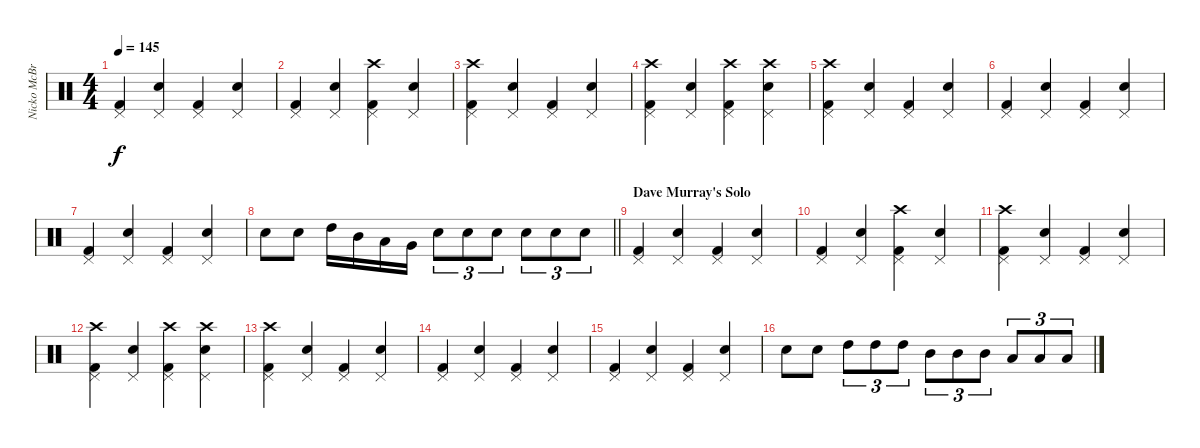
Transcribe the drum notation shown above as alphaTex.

\track ("Nicko McBrain" "Nicko McBr") {instrument percussion}
\staff {score}
\articulation defaults
\ts (4 4)
\tempo 145
\clef neutral
\ks c
("Pedal Hi-Hat (hit)" "Kick (hit) 2").4{dy f} ("Pedal Hi-Hat (hit)" "Snare (hit) 2").4 ("Pedal Hi-Hat (hit)" "Kick (hit) 2").4 ("Pedal Hi-Hat (hit)" "Snare (hit) 2").4 |
("Pedal Hi-Hat (hit)" "Kick (hit) 2").4 ("Pedal Hi-Hat (hit)" "Snare (hit) 2").4 ("Pedal Hi-Hat (hit)" "Kick (hit) 2" "Crash high (hit)").4 ("Pedal Hi-Hat (hit)" "Snare (hit) 2").4 |
("Pedal Hi-Hat (hit)" "Kick (hit) 2" "Crash high (hit)").4 ("Pedal Hi-Hat (hit)" "Snare (hit) 2").4 ("Pedal Hi-Hat (hit)" "Kick (hit) 2").4 ("Pedal Hi-Hat (hit)" "Snare (hit) 2").4 |
("Pedal Hi-Hat (hit)" "Kick (hit) 2" "Crash high (hit)").4 ("Pedal Hi-Hat (hit)" "Snare (hit) 2").4 ("Pedal Hi-Hat (hit)" "Kick (hit) 2" "Crash high (hit)").4 ("Pedal Hi-Hat (hit)" "Snare (hit) 2" "Crash high (hit)").4 |
("Pedal Hi-Hat (hit)" "Kick (hit) 2" "Crash high (hit)").4 ("Pedal Hi-Hat (hit)" "Snare (hit) 2").4 ("Pedal Hi-Hat (hit)" "Kick (hit) 2").4 ("Pedal Hi-Hat (hit)" "Snare (hit) 2").4 |
("Pedal Hi-Hat (hit)" "Kick (hit) 2").4 ("Pedal Hi-Hat (hit)" "Snare (hit) 2").4 ("Pedal Hi-Hat (hit)" "Kick (hit) 2").4 ("Pedal Hi-Hat (hit)" "Snare (hit) 2").4 |
("Pedal Hi-Hat (hit)" "Kick (hit) 2").4 ("Pedal Hi-Hat (hit)" "Snare (hit) 2").4 ("Pedal Hi-Hat (hit)" "Kick (hit) 2").4 ("Pedal Hi-Hat (hit)" "Snare (hit) 2").4 |
\barLineRight lightlight "Snare (hit) 2".8 "Snare (hit) 2".8 "High Tom (hit)".16 "Mid Tom (hit)".16 "Low Tom (hit)".16 "Very Low Tom (hit)".16 "Snare (hit) 2".8{tu (3 2)} "Snare (hit) 2".8{tu (3 2)} "Snare (hit) 2".8{tu (3 2)} "Snare (hit) 2".8{tu (3 2)} "Snare (hit) 2".8{tu (3 2)} "Snare (hit) 2".8{tu (3 2)}
|
\section ("" "Dave Murray's Solo")
("Pedal Hi-Hat (hit)" "Kick (hit) 2").4 ("Pedal Hi-Hat (hit)" "Snare (hit) 2").4 ("Pedal Hi-Hat (hit)" "Kick (hit) 2").4 ("Pedal Hi-Hat (hit)" "Snare (hit) 2").4 |
("Pedal Hi-Hat (hit)" "Kick (hit) 2").4 ("Pedal Hi-Hat (hit)" "Snare (hit) 2").4 ("Pedal Hi-Hat (hit)" "Kick (hit) 2" "Crash high (hit)").4 ("Pedal Hi-Hat (hit)" "Snare (hit) 2").4 |
("Pedal Hi-Hat (hit)" "Kick (hit) 2" "Crash high (hit)").4 ("Pedal Hi-Hat (hit)" "Snare (hit) 2").4 ("Pedal Hi-Hat (hit)" "Kick (hit) 2").4 ("Pedal Hi-Hat (hit)" "Snare (hit) 2").4 |
("Pedal Hi-Hat (hit)" "Kick (hit) 2" "Crash high (hit)").4 ("Pedal Hi-Hat (hit)" "Snare (hit) 2").4 ("Pedal Hi-Hat (hit)" "Kick (hit) 2" "Crash high (hit)").4 ("Pedal Hi-Hat (hit)" "Snare (hit) 2" "Crash high (hit)").4 |
("Pedal Hi-Hat (hit)" "Kick (hit) 2" "Crash high (hit)").4 ("Pedal Hi-Hat (hit)" "Snare (hit) 2").4 ("Pedal Hi-Hat (hit)" "Kick (hit) 2").4 ("Pedal Hi-Hat (hit)" "Snare (hit) 2").4 |
("Pedal Hi-Hat (hit)" "Kick (hit) 2").4 ("Pedal Hi-Hat (hit)" "Snare (hit) 2").4 ("Pedal Hi-Hat (hit)" "Kick (hit) 2").4 ("Pedal Hi-Hat (hit)" "Snare (hit) 2").4 |
("Pedal Hi-Hat (hit)" "Kick (hit) 2").4 ("Pedal Hi-Hat (hit)" "Snare (hit) 2").4 ("Pedal Hi-Hat (hit)" "Kick (hit) 2").4 ("Pedal Hi-Hat (hit)" "Snare (hit) 2").4 |
"Snare (hit) 2".8 "Snare (hit) 2".8 "High Tom (hit)".8{tu (3 2)} "High Tom (hit)".8{tu (3 2)} "High Tom (hit)".8{tu (3 2)} "Mid Tom (hit)".8{tu (3 2)} "Mid Tom (hit)".8{tu (3 2)} "Mid Tom (hit)".8{tu (3 2)} "Low Tom (hit)".8{tu (3 2)} "Low Tom (hit)".8{tu (3 2)} "Low Tom (hit)".8{tu (3 2)}
